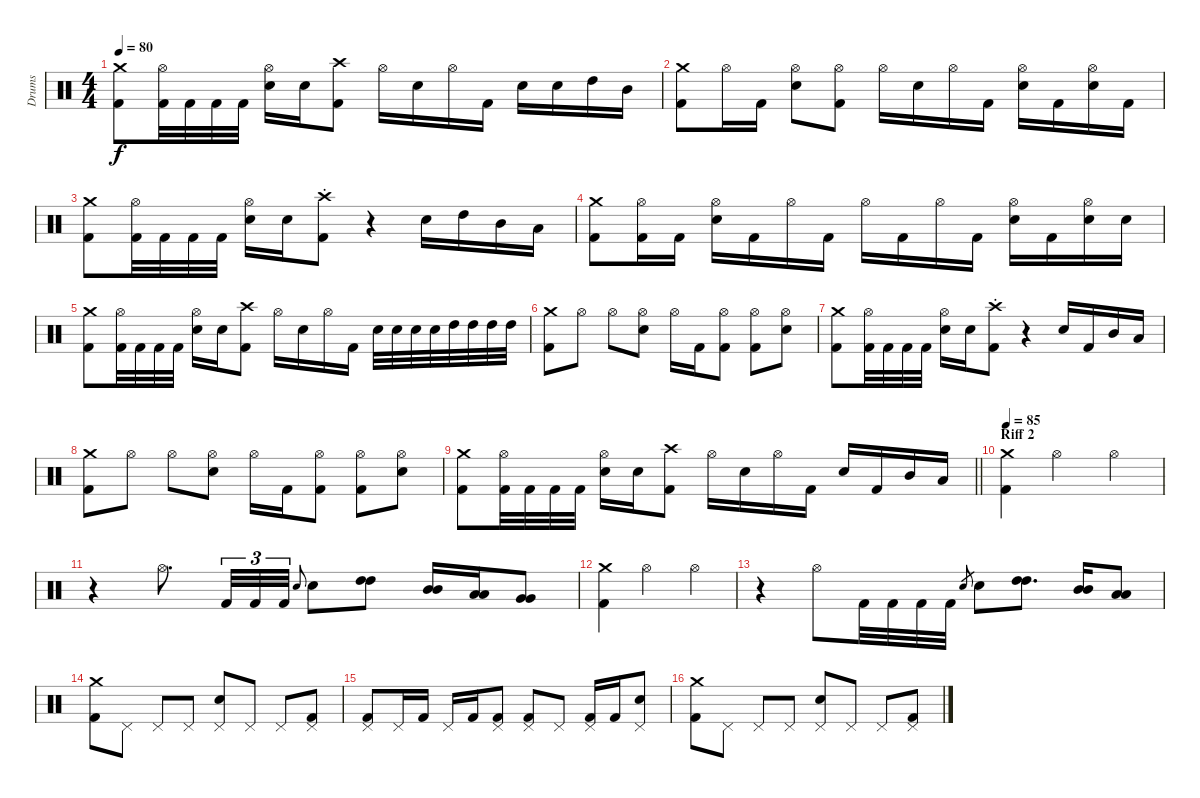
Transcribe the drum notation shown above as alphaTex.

\track ("Drums" "Drums") {instrument percussion}
\staff {score}
\articulation defaults
\ts (4 4)
\tempo 80
\clef neutral
\ks c
("Crash medium (hit)" "Kick (hit) 2").8{dy f} ("Hi-Hat (open)" "Kick (hit) 2").32 "Kick (hit) 2".32 "Kick (hit) 2".32 "Kick (hit) 2".32 ("Hi-Hat (open)" "Electric Snare (hit)").16 "Electric Snare (hit)".16 ("Crash high (hit)" "Kick (hit) 2").8 "Hi-Hat (open)".16 "Electric Snare (hit)".16 "Hi-Hat (open)".16 "Kick (hit) 2".16 "Electric Snare (hit)".16 "Electric Snare (hit)".16 "High Tom (hit)".16 "Mid Tom (hit)".16 |
("Crash medium (hit)" "Kick (hit) 2").8 "Hi-Hat (open)".16 "Kick (hit) 2".16 ("Hi-Hat (open)" "Electric Snare (hit)").8 ("Hi-Hat (open)" "Kick (hit) 2").8 "Hi-Hat (open)".16 "Electric Snare (hit)".16 "Hi-Hat (open)".16 "Kick (hit) 2".16 ("Hi-Hat (open)" "Electric Snare (hit)").16 "Kick (hit) 2".16 ("Hi-Hat (open)" "Electric Snare (hit)").16 "Kick (hit) 2".16 |
("Crash medium (hit)" "Kick (hit) 2").8 ("Hi-Hat (open)" "Kick (hit) 2").32 "Kick (hit) 2".32 "Kick (hit) 2".32 "Kick (hit) 2".32 ("Hi-Hat (open)" "Electric Snare (hit)").16 "Electric Snare (hit)".16 ("Crash high (hit)"{st} "Kick (hit) 2").8 r.4 "Electric Snare (hit)".16 "High Tom (hit)".16 "Mid Tom (hit)".16 "Low Tom (hit)".16 |
("Crash medium (hit)" "Kick (hit) 2").8 ("Hi-Hat (open)" "Kick (hit) 2").16 "Kick (hit) 2".16 ("Hi-Hat (open)" "Electric Snare (hit)").16 "Kick (hit) 2".16 "Hi-Hat (open)".16 "Kick (hit) 2".16 "Hi-Hat (open)".16 "Kick (hit) 2".16 "Hi-Hat (open)".16 "Kick (hit) 2".16 ("Hi-Hat (open)" "Electric Snare (hit)").16 "Kick (hit) 2".16 ("Hi-Hat (open)" "Electric Snare (hit)").16 "Electric Snare (hit)".16 |
("Crash medium (hit)" "Kick (hit) 2").8 ("Hi-Hat (open)" "Kick (hit) 2").32 "Kick (hit) 2".32 "Kick (hit) 2".32 "Kick (hit) 2".32 ("Hi-Hat (open)" "Electric Snare (hit)").16 "Electric Snare (hit)".16 ("Crash high (hit)" "Kick (hit) 2").8 "Hi-Hat (open)".16 "Electric Snare (hit)".16 "Hi-Hat (open)".16 "Kick (hit) 2".16 "Electric Snare (hit)".32 "Electric Snare (hit)".32 "Electric Snare (hit)".32 "Electric Snare (hit)".32 "High Tom (hit)".32 "High Tom (hit)".32 "High Tom (hit)".32 "High Tom (hit)".32 |
("Crash medium (hit)" "Kick (hit) 2").8 "Hi-Hat (open)".8 "Hi-Hat (open)".8 ("Hi-Hat (open)" "Electric Snare (hit)").8 "Hi-Hat (open)".16 "Kick (hit) 2".16 ("Hi-Hat (open)" "Kick (hit) 2").8 ("Hi-Hat (open)" "Kick (hit) 2").8 ("Hi-Hat (open)" "Electric Snare (hit)").8 |
("Crash medium (hit)" "Kick (hit) 2").8 ("Hi-Hat (open)" "Kick (hit) 2").32 "Kick (hit) 2".32 "Kick (hit) 2".32 "Kick (hit) 2".32 ("Hi-Hat (open)" "Electric Snare (hit)").16 "Electric Snare (hit)".16 ("Crash high (hit)"{st} "Kick (hit) 2").8 r.4 "Electric Snare (hit)".16 "Kick (hit) 2".16 "Mid Tom (hit)".16 "Low Tom (hit)".16 |
("Crash medium (hit)" "Kick (hit) 2").8 "Hi-Hat (open)".8 "Hi-Hat (open)".8 ("Hi-Hat (open)" "Electric Snare (hit)").8 "Hi-Hat (open)".16 "Kick (hit) 2".16 ("Hi-Hat (open)" "Kick (hit) 2").8 ("Hi-Hat (open)" "Kick (hit) 2").8 ("Hi-Hat (open)" "Electric Snare (hit)").8 |
\barLineRight lightlight
("Crash medium (hit)" "Kick (hit) 2").8 ("Hi-Hat (open)" "Kick (hit) 2").32 "Kick (hit) 2".32 "Kick (hit) 2".32 "Kick (hit) 2".32 ("Hi-Hat (open)" "Electric Snare (hit)").16 "Electric Snare (hit)".16 ("Crash high (hit)" "Kick (hit) 2").8 "Hi-Hat (open)".16 "Electric Snare (hit)".16 "Hi-Hat (open)".16 "Kick (hit) 2".16 "Electric Snare (hit)".16 "Kick (hit) 2".16 "Mid Tom (hit)".16 "Low Tom (hit)".16 |
\section ("" "Riff 2")
\tempo 85
("Crash medium (hit)" "Kick (hit) 2").4 "Hi-Hat (open)".2 "Hi-Hat (open)".4 |
r.4 "Hi-Hat (open)".8{d} "Kick (hit) 2".32{tu (3 2)} "Kick (hit) 2".32{tu (3 2)} "Kick (hit) 2".32{tu (3 2)} "Electric Snare (hit)".8{gr onbeat} "Electric Snare (hit)".8 ("High Tom (hit)" "High Tom (hit)").8 ("Mid Tom (hit)" "Mid Tom (hit)").16 ("Low Tom (hit)" "Low Tom (hit)").16 ("Very Low Tom (hit)" "Very Low Tom (hit)").8 |
("Crash medium (hit)" "Kick (hit) 2").4 "Hi-Hat (open)".2 "Hi-Hat (open)".4 |
r.4 "Hi-Hat (open)".8 "Kick (hit) 2".32 "Kick (hit) 2".32 "Kick (hit) 2".32 "Kick (hit) 2".32 "Electric Snare (hit)".8{gr} "Electric Snare (hit)".8 ("High Tom (hit)" "High Tom (hit)").8{d} ("Mid Tom (hit)" "Mid Tom (hit)").16 ("Low Tom (hit)" "Low Tom (hit)").8 |
("Crash medium (hit)" "Kick (hit) 2").8 "Pedal Hi-Hat (hit)".8 "Pedal Hi-Hat (hit)".8 "Pedal Hi-Hat (hit)".8 ("Pedal Hi-Hat (hit)" "Electric Snare (hit)").8 "Pedal Hi-Hat (hit)".8 "Pedal Hi-Hat (hit)".8 ("Pedal Hi-Hat (hit)" "Kick (hit) 2").8 |
("Pedal Hi-Hat (hit)" "Kick (hit) 2").8 "Pedal Hi-Hat (hit)".16 "Kick (hit) 2".16 "Pedal Hi-Hat (hit)".16 "Kick (hit) 2".16 ("Pedal Hi-Hat (hit)" "Kick (hit) 2").8 ("Pedal Hi-Hat (hit)" "Kick (hit) 2").8 "Pedal Hi-Hat (hit)".8 ("Pedal Hi-Hat (hit)" "Kick (hit) 2").16 "Kick (hit) 2".16 ("Pedal Hi-Hat (hit)" "Electric Snare (hit)").8 |
("Crash medium (hit)" "Kick (hit) 2").8 "Pedal Hi-Hat (hit)".8 "Pedal Hi-Hat (hit)".8 "Pedal Hi-Hat (hit)".8 ("Pedal Hi-Hat (hit)" "Electric Snare (hit)").8 "Pedal Hi-Hat (hit)".8 "Pedal Hi-Hat (hit)".8 ("Pedal Hi-Hat (hit)" "Kick (hit) 2").8
